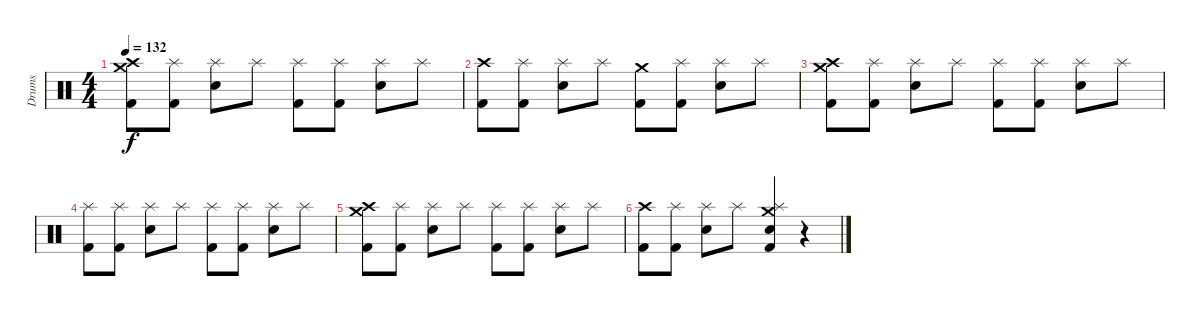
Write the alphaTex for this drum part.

\track ("Drums" "Drums") {instrument percussion}
\staff {score}
\articulation defaults
\ts (4 4)
\tempo 132
\clef neutral
\ks c
("Kick (hit) 2" "Crash medium (hit)" "Crash high (hit)").8{dy f} ("Splash (hit)" "Kick (hit) 2").8 ("Snare (hit) 2" "Splash (hit)").8 "Splash (hit)".8 ("Splash (hit)" "Kick (hit) 2").8 ("Splash (hit)" "Kick (hit) 2").8 ("Snare (hit) 2" "Splash (hit)").8 "Splash (hit)".8 |
("Kick (hit) 2" "Crash high (hit)").8 ("Splash (hit)" "Kick (hit) 2").8 ("Snare (hit) 2" "Splash (hit)").8 "Splash (hit)".8 ("Kick (hit) 2" "Crash medium (hit)").8 ("Splash (hit)" "Kick (hit) 2").8 ("Snare (hit) 2" "Splash (hit)").8 "Splash (hit)".8 |
("Kick (hit) 2" "Crash medium (hit)" "Crash high (hit)").8 ("Splash (hit)" "Kick (hit) 2").8 ("Snare (hit) 2" "Splash (hit)").8 "Splash (hit)".8 ("Splash (hit)" "Kick (hit) 2").8 ("Splash (hit)" "Kick (hit) 2").8 ("Snare (hit) 2" "Splash (hit)").8 "Splash (hit)".8 |
("Splash (hit)" "Kick (hit) 2").8 ("Splash (hit)" "Kick (hit) 2").8 ("Snare (hit) 2" "Splash (hit)").8 "Splash (hit)".8 ("Splash (hit)" "Kick (hit) 2").8 ("Splash (hit)" "Kick (hit) 2").8 ("Snare (hit) 2" "Splash (hit)").8 "Splash (hit)".8 |
("Kick (hit) 2" "Crash medium (hit)" "Crash high (hit)").8 ("Splash (hit)" "Kick (hit) 2").8 ("Snare (hit) 2" "Splash (hit)").8 "Splash (hit)".8 ("Splash (hit)" "Kick (hit) 2").8 ("Splash (hit)" "Kick (hit) 2").8 ("Snare (hit) 2" "Splash (hit)").8 "Splash (hit)".8 |
("Kick (hit) 2" "Crash high (hit)").8 ("Splash (hit)" "Kick (hit) 2").8 ("Snare (hit) 2" "Splash (hit)").8 "Splash (hit)".8 ("Kick (hit) 2" "Splash (hit)" "Snare (hit) 2" "Crash medium (hit)").4 r.4
